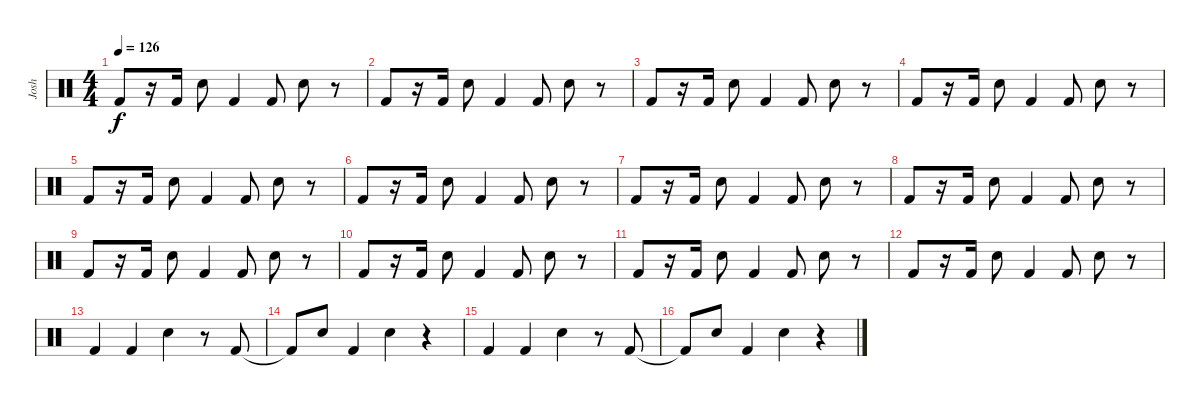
\track ("Josh" "Josh") {instrument percussion}
\staff {score}
\articulation defaults
\ts (4 4)
\tempo 126
\clef neutral
\ks c "Kick (hit) 2".8{dy f}
r.16 "Kick (hit) 2".16 "Snare (hit) 2".8 "Kick (hit) 2".4 "Kick (hit) 2".8 "Snare (hit) 2".8 r.8 |
"Kick (hit) 2".8 r.16 "Kick (hit) 2".16 "Snare (hit) 2".8 "Kick (hit) 2".4 "Kick (hit) 2".8 "Snare (hit) 2".8 r.8 |
"Kick (hit) 2".8 r.16 "Kick (hit) 2".16 "Snare (hit) 2".8 "Kick (hit) 2".4 "Kick (hit) 2".8 "Snare (hit) 2".8 r.8 |
"Kick (hit) 2".8 r.16 "Kick (hit) 2".16 "Snare (hit) 2".8 "Kick (hit) 2".4 "Kick (hit) 2".8 "Snare (hit) 2".8 r.8 |
"Kick (hit) 2".8 r.16 "Kick (hit) 2".16 "Snare (hit) 2".8 "Kick (hit) 2".4 "Kick (hit) 2".8 "Snare (hit) 2".8 r.8 |
"Kick (hit) 2".8 r.16 "Kick (hit) 2".16 "Snare (hit) 2".8 "Kick (hit) 2".4 "Kick (hit) 2".8 "Snare (hit) 2".8 r.8 |
"Kick (hit) 2".8 r.16 "Kick (hit) 2".16 "Snare (hit) 2".8 "Kick (hit) 2".4 "Kick (hit) 2".8 "Snare (hit) 2".8 r.8 |
"Kick (hit) 2".8 r.16 "Kick (hit) 2".16 "Snare (hit) 2".8 "Kick (hit) 2".4 "Kick (hit) 2".8 "Snare (hit) 2".8 r.8 |
"Kick (hit) 2".8 r.16 "Kick (hit) 2".16 "Snare (hit) 2".8 "Kick (hit) 2".4 "Kick (hit) 2".8 "Snare (hit) 2".8 r.8 |
"Kick (hit) 2".8 r.16 "Kick (hit) 2".16 "Snare (hit) 2".8 "Kick (hit) 2".4 "Kick (hit) 2".8 "Snare (hit) 2".8 r.8 |
"Kick (hit) 2".8 r.16 "Kick (hit) 2".16 "Snare (hit) 2".8 "Kick (hit) 2".4 "Kick (hit) 2".8 "Snare (hit) 2".8 r.8 |
"Kick (hit) 2".8 r.16 "Kick (hit) 2".16 "Snare (hit) 2".8 "Kick (hit) 2".4 "Kick (hit) 2".8 "Snare (hit) 2".8 r.8 |
"Kick (hit) 2".4 "Kick (hit) 2".4 "Snare (hit) 2".4 r.8 "Kick (hit) 2".8 |
"Kick (hit) 2"{t}.8 "Snare (hit) 2".8 "Kick (hit) 2".4 "Snare (hit) 2".4 r.4 |
"Kick (hit) 2".4 "Kick (hit) 2".4 "Snare (hit) 2".4 r.8 "Kick (hit) 2".8 |
"Kick (hit) 2"{t}.8 "Snare (hit) 2".8 "Kick (hit) 2".4 "Snare (hit) 2".4 r.4
